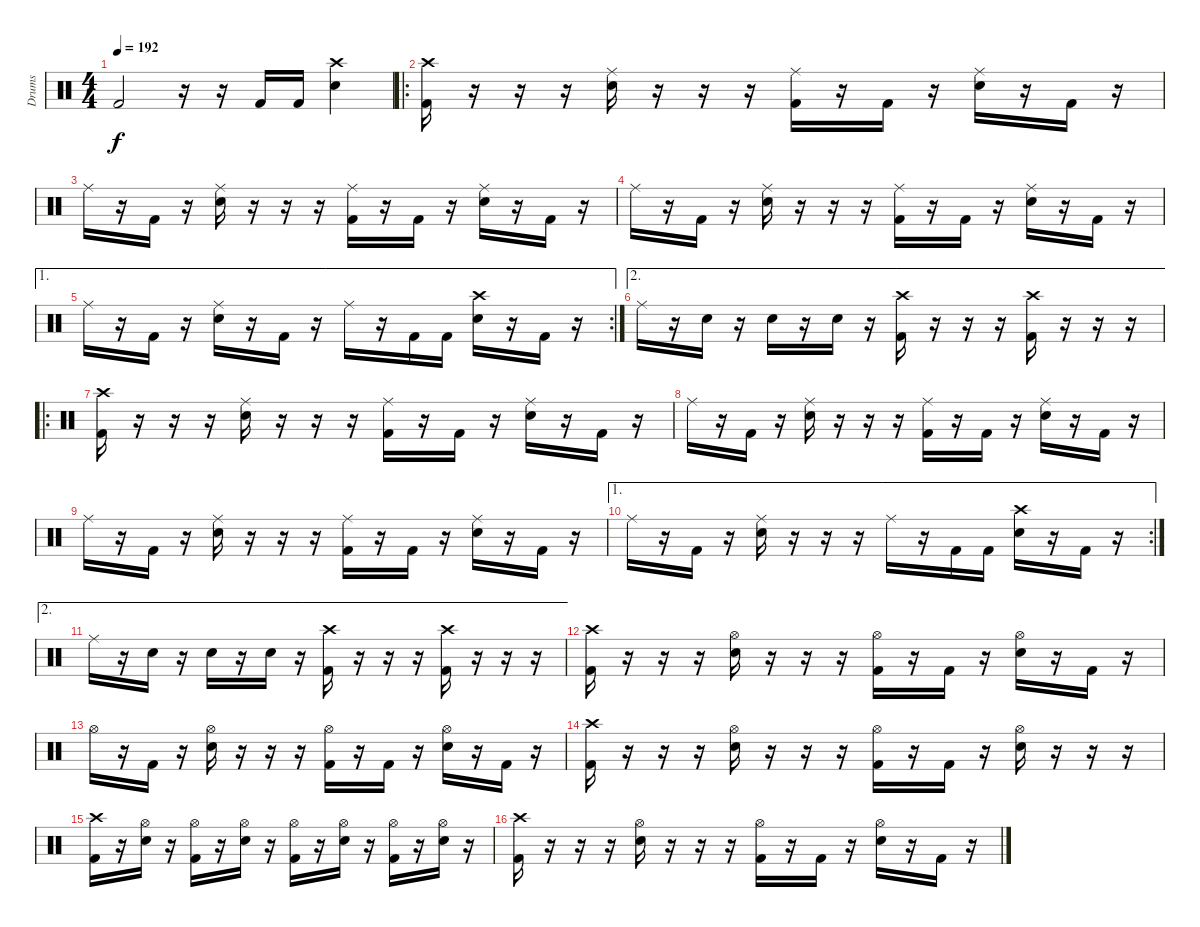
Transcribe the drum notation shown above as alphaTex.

\track ("Drums" "Drums") {instrument percussion}
\staff {score}
\articulation defaults
\ts (4 4)
\tempo 192
\clef neutral
\ks c "Kick (hit) 2".2{dy f}
r.16 r.16 "Kick (hit) 2".16 "Kick (hit) 2".16 ("Crash high (hit)" "Electric Snare (hit)").4 |
\ro
("Crash high (hit)" "Kick (hit) 2").16 r.16 r.16 r.16 ("Ride (middle)" "Electric Snare (hit)").16 r.16 r.16 r.16 ("Ride (middle)" "Kick (hit) 2").16 r.16 "Kick (hit) 2".16 r.16 ("Ride (middle)" "Electric Snare (hit)").16 r.16 "Kick (hit) 2".16 r.16 |
"Ride (middle)".16 r.16 "Kick (hit) 2".16 r.16 ("Ride (middle)" "Electric Snare (hit)").16 r.16 r.16 r.16 ("Ride (middle)" "Kick (hit) 2").16 r.16 "Kick (hit) 2".16 r.16 ("Ride (middle)" "Electric Snare (hit)").16 r.16 "Kick (hit) 2".16 r.16 |
"Ride (middle)".16 r.16 "Kick (hit) 2".16 r.16 ("Ride (middle)" "Electric Snare (hit)").16 r.16 r.16 r.16 ("Ride (middle)" "Kick (hit) 2").16 r.16 "Kick (hit) 2".16 r.16 ("Ride (middle)" "Electric Snare (hit)").16 r.16 "Kick (hit) 2".16 r.16 |
\ae 1
\rc 2 "Ride (middle)".16
r.16 "Kick (hit) 2".16 r.16 ("Ride (middle)" "Electric Snare (hit)").16 r.16 "Kick (hit) 2".16 r.16 "Ride (middle)".16 r.16 "Kick (hit) 2".16 "Kick (hit) 2".16 ("Crash high (hit)" "Electric Snare (hit)").16 r.16 "Kick (hit) 2".16 r.16 |
\ae 2 "Ride (middle)".16
r.16 "Electric Snare (hit)".16 r.16 "Electric Snare (hit)".16 r.16 "Electric Snare (hit)".16 r.16 ("Crash high (hit)" "Kick (hit) 2").16 r.16 r.16 r.16 ("Crash high (hit)" "Kick (hit) 2").16 r.16 r.16 r.16 |
\ro
("Crash high (hit)" "Kick (hit) 2").16 r.16 r.16 r.16 ("Ride (middle)" "Electric Snare (hit)").16 r.16 r.16 r.16 ("Ride (middle)" "Kick (hit) 2").16 r.16 "Kick (hit) 2".16 r.16 ("Ride (middle)" "Electric Snare (hit)").16 r.16 "Kick (hit) 2".16 r.16 |
"Ride (middle)".16 r.16 "Kick (hit) 2".16 r.16 ("Ride (middle)" "Electric Snare (hit)").16 r.16 r.16 r.16 ("Ride (middle)" "Kick (hit) 2").16 r.16 "Kick (hit) 2".16 r.16 ("Ride (middle)" "Electric Snare (hit)").16 r.16 "Kick (hit) 2".16 r.16 |
"Ride (middle)".16 r.16 "Kick (hit) 2".16 r.16 ("Ride (middle)" "Electric Snare (hit)").16 r.16 r.16 r.16 ("Ride (middle)" "Kick (hit) 2").16 r.16 "Kick (hit) 2".16 r.16 ("Ride (middle)" "Electric Snare (hit)").16 r.16 "Kick (hit) 2".16 r.16 |
\ae 1
\rc 2 "Ride (middle)".16
r.16 "Kick (hit) 2".16 r.16 ("Ride (middle)" "Electric Snare (hit)").16 r.16 r.16 r.16 "Ride (middle)".16 r.16 "Kick (hit) 2".16 "Kick (hit) 2".16 ("Crash high (hit)" "Electric Snare (hit)").16 r.16 "Kick (hit) 2".16 r.16 |
\ae 2 "Ride (middle)".16
r.16 "Electric Snare (hit)".16 r.16 "Electric Snare (hit)".16 r.16 "Electric Snare (hit)".16 r.16 ("Crash high (hit)" "Kick (hit) 2").16 r.16 r.16 r.16 ("Crash high (hit)" "Kick (hit) 2").16 r.16 r.16 r.16 |
("Crash high (hit)" "Kick (hit) 2").16 r.16 r.16 r.16 ("Hi-Hat (open)" "Electric Snare (hit)").16 r.16 r.16 r.16 ("Hi-Hat (open)" "Kick (hit) 2").16 r.16 "Kick (hit) 2".16 r.16 ("Hi-Hat (open)" "Electric Snare (hit)").16 r.16 "Kick (hit) 2".16 r.16 |
"Hi-Hat (open)".16 r.16 "Kick (hit) 2".16 r.16 ("Hi-Hat (open)" "Electric Snare (hit)").16 r.16 r.16 r.16 ("Hi-Hat (open)" "Kick (hit) 2").16 r.16 "Kick (hit) 2".16 r.16 ("Hi-Hat (open)" "Electric Snare (hit)").16 r.16 "Kick (hit) 2".16 r.16 |
("Crash high (hit)" "Kick (hit) 2").16 r.16 r.16 r.16 ("Hi-Hat (open)" "Electric Snare (hit)").16 r.16 r.16 r.16 ("Hi-Hat (open)" "Kick (hit) 2").16 r.16 "Kick (hit) 2".16 r.16 ("Hi-Hat (open)" "Electric Snare (hit)").16 r.16 r.16 r.16 |
("Crash high (hit)" "Kick (hit) 2").16 r.16 ("Hi-Hat (open)" "Electric Snare (hit)").16 r.16 ("Hi-Hat (open)" "Kick (hit) 2").16 r.16 ("Hi-Hat (open)" "Electric Snare (hit)").16 r.16 ("Hi-Hat (open)" "Kick (hit) 2").16 r.16 ("Hi-Hat (open)" "Electric Snare (hit)").16 r.16 ("Hi-Hat (open)" "Kick (hit) 2").16 r.16 ("Hi-Hat (open)" "Electric Snare (hit)").16 r.16 |
("Crash high (hit)" "Kick (hit) 2").16 r.16 r.16 r.16 ("Hi-Hat (open)" "Electric Snare (hit)").16 r.16 r.16 r.16 ("Hi-Hat (open)" "Kick (hit) 2").16 r.16 "Kick (hit) 2".16 r.16 ("Hi-Hat (open)" "Electric Snare (hit)").16 r.16 "Kick (hit) 2".16 r.16
